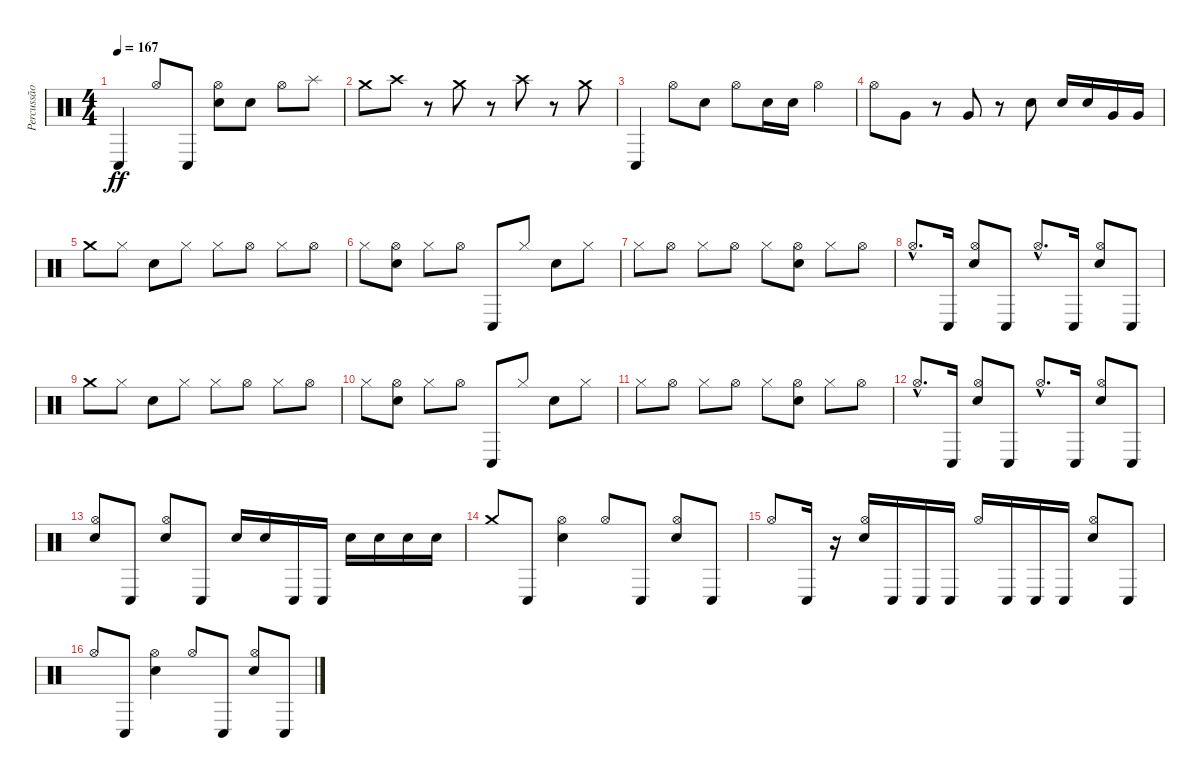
\track ("Percussão" "Percussão") {instrument percussion}
\staff {score}
\articulation defaults
\ts (4 4)
\tempo 167
\clef neutral
\ks c "Conga low (hit)".4{dy ff} "Hi-Hat (open)".8 "Conga low (hit)".8
("Electric Snare (hit)" "Hi-Hat (open)").8 "Electric Snare (hit)".8 "Hi-Hat (open)".8 "Splash (hit)".8 |
"Crash medium (hit)".8 "Crash high (hit)".8 r.8 "Crash medium (hit)".8 r.8 "Crash high (hit)".8 r.8 "Crash medium (hit)".8 |
"Conga low (hit)".4 "Hi-Hat (open)".8 "Electric Snare (hit)".8 "Hi-Hat (open)".8 "Electric Snare (hit)".16 "Electric Snare (hit)".16 "Hi-Hat (open)".4 |
"Hi-Hat (open)".8 "Very Low Tom (hit)".8 r.8 "Very Low Tom (hit)".8 r.8 "Electric Snare (hit)".8 "Electric Snare (hit)".16 "Electric Snare (hit)".16 "Very Low Tom (hit)".16 "Very Low Tom (hit)".16 |
"Crash medium (hit)".8 "Hi-Hat (closed)".8 "Electric Snare (hit)".8 "Hi-Hat (closed)".8 "Hi-Hat (closed)".8 "Hi-Hat (open)".8 "Hi-Hat (closed)".8 "Hi-Hat (open)".8 |
"Hi-Hat (closed)".8 ("Electric Snare (hit)" "Hi-Hat (open)").8 "Hi-Hat (closed)".8 "Hi-Hat (open)".8 "Conga low (hit)".8 "Hi-Hat (closed)".8 "Electric Snare (hit)".8 "Hi-Hat (closed)".8 |
"Hi-Hat (closed)".8 "Hi-Hat (open)".8 "Hi-Hat (closed)".8 "Hi-Hat (open)".8 "Hi-Hat (closed)".8 ("Electric Snare (hit)" "Hi-Hat (open)").8 "Hi-Hat (closed)".8 "Hi-Hat (open)".8 |
"Hi-Hat (open)"{hac}.8{d} "Conga low (hit)".16 ("Electric Snare (hit)" "Hi-Hat (open)").8 "Conga low (hit)".8 "Hi-Hat (open)"{hac}.8{d} "Conga low (hit)".16 ("Electric Snare (hit)" "Hi-Hat (open)").8 "Conga low (hit)".8 |
"Crash medium (hit)".8 "Hi-Hat (closed)".8 "Electric Snare (hit)".8 "Hi-Hat (closed)".8 "Hi-Hat (closed)".8 "Hi-Hat (open)".8 "Hi-Hat (closed)".8 "Hi-Hat (open)".8 |
"Hi-Hat (closed)".8 ("Electric Snare (hit)" "Hi-Hat (open)").8 "Hi-Hat (closed)".8 "Hi-Hat (open)".8 "Conga low (hit)".8 "Hi-Hat (closed)".8 "Electric Snare (hit)".8 "Hi-Hat (closed)".8 |
"Hi-Hat (closed)".8 "Hi-Hat (open)".8 "Hi-Hat (closed)".8 "Hi-Hat (open)".8 "Hi-Hat (closed)".8 ("Electric Snare (hit)" "Hi-Hat (open)").8 "Hi-Hat (closed)".8 "Hi-Hat (open)".8 |
"Hi-Hat (open)"{hac}.8{d} "Conga low (hit)".16 ("Electric Snare (hit)" "Hi-Hat (open)").8 "Conga low (hit)".8 "Hi-Hat (open)"{hac}.8{d} "Conga low (hit)".16 ("Electric Snare (hit)" "Hi-Hat (open)").8 "Conga low (hit)".8 |
("Electric Snare (hit)" "Hi-Hat (open)").8 "Conga low (hit)".8 ("Electric Snare (hit)" "Hi-Hat (open)").8 "Conga low (hit)".8 "Electric Snare (hit)".16 "Electric Snare (hit)".16 "Conga low (hit)".16 "Conga low (hit)".16 "Electric Snare (hit)".16 "Electric Snare (hit)".16 "Electric Snare (hit)".16 "Electric Snare (hit)".16 |
"Crash medium (hit)".8 "Conga low (hit)".8 ("Electric Snare (hit)" "Hi-Hat (open)").4 "Hi-Hat (open)".8 "Conga low (hit)".8 ("Electric Snare (hit)" "Hi-Hat (open)").8 "Conga low (hit)".8 |
"Hi-Hat (open)".8 "Conga low (hit)".16 r.16 ("Electric Snare (hit)" "Hi-Hat (open)").16 "Conga low (hit)".16 "Conga low (hit)".16 "Conga low (hit)".16 "Hi-Hat (open)".16 "Conga low (hit)".16 "Conga low (hit)".16 "Conga low (hit)".16 ("Electric Snare (hit)" "Hi-Hat (open)").8 "Conga low (hit)".8 |
"Hi-Hat (open)".8 "Conga low (hit)".8 ("Electric Snare (hit)" "Hi-Hat (open)").4 "Hi-Hat (open)".8 "Conga low (hit)".8 ("Electric Snare (hit)" "Hi-Hat (open)").8 "Conga low (hit)".8
